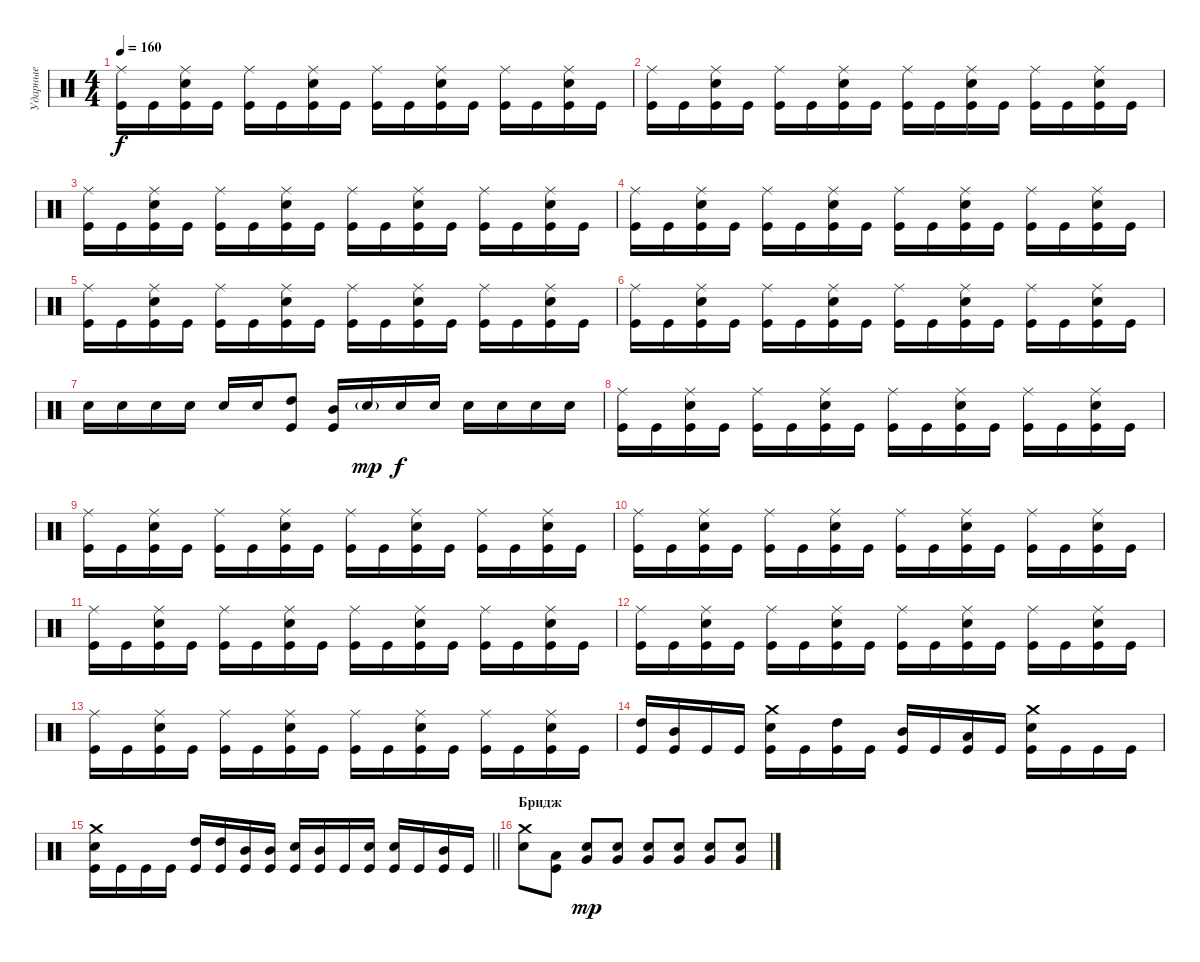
\track ("Ударные" "Ударные") {instrument percussion}
\staff {score}
\articulation defaults
\ts (4 4)
\tempo 160
\clef neutral
\ks c
("Kick (hit)" "Ride (middle)").16{dy f} "Kick (hit)".16 ("Kick (hit)" "Snare (hit) 2" "Ride (middle)").16 "Kick (hit)".16 ("Kick (hit)" "Ride (middle)").16 "Kick (hit)".16 ("Kick (hit)" "Snare (hit) 2" "Ride (middle)").16 "Kick (hit)".16 ("Kick (hit)" "Ride (middle)").16 "Kick (hit)".16 ("Kick (hit)" "Snare (hit) 2" "Ride (middle)").16 "Kick (hit)".16 ("Kick (hit)" "Ride (middle)").16 "Kick (hit)".16 ("Kick (hit)" "Snare (hit) 2" "Ride (middle)").16 "Kick (hit)".16 |
("Kick (hit)" "Ride (middle)").16 "Kick (hit)".16 ("Kick (hit)" "Snare (hit) 2" "Ride (middle)").16 "Kick (hit)".16 ("Kick (hit)" "Ride (middle)").16 "Kick (hit)".16 ("Kick (hit)" "Snare (hit) 2" "Ride (middle)").16 "Kick (hit)".16 ("Kick (hit)" "Ride (middle)").16 "Kick (hit)".16 ("Kick (hit)" "Snare (hit) 2" "Ride (middle)").16 "Kick (hit)".16 ("Kick (hit)" "Ride (middle)").16 "Kick (hit)".16 ("Kick (hit)" "Snare (hit) 2" "Ride (middle)").16 "Kick (hit)".16 |
("Kick (hit)" "Ride (middle)").16 "Kick (hit)".16 ("Kick (hit)" "Snare (hit) 2" "Ride (middle)").16 "Kick (hit)".16 ("Kick (hit)" "Ride (middle)").16 "Kick (hit)".16 ("Kick (hit)" "Snare (hit) 2" "Ride (middle)").16 "Kick (hit)".16 ("Kick (hit)" "Ride (middle)").16 "Kick (hit)".16 ("Kick (hit)" "Snare (hit) 2" "Ride (middle)").16 "Kick (hit)".16 ("Kick (hit)" "Ride (middle)").16 "Kick (hit)".16 ("Kick (hit)" "Snare (hit) 2" "Ride (middle)").16 "Kick (hit)".16 |
("Kick (hit)" "Ride (middle)").16 "Kick (hit)".16 ("Kick (hit)" "Snare (hit) 2" "Ride (middle)").16 "Kick (hit)".16 ("Kick (hit)" "Ride (middle)").16 "Kick (hit)".16 ("Kick (hit)" "Snare (hit) 2" "Ride (middle)").16 "Kick (hit)".16 ("Kick (hit)" "Ride (middle)").16 "Kick (hit)".16 ("Kick (hit)" "Snare (hit) 2" "Ride (middle)").16 "Kick (hit)".16 ("Kick (hit)" "Ride (middle)").16 "Kick (hit)".16 ("Kick (hit)" "Snare (hit) 2" "Ride (middle)").16 "Kick (hit)".16 |
("Kick (hit)" "Ride (middle)").16 "Kick (hit)".16 ("Kick (hit)" "Snare (hit) 2" "Ride (middle)").16 "Kick (hit)".16 ("Kick (hit)" "Ride (middle)").16 "Kick (hit)".16 ("Kick (hit)" "Snare (hit) 2" "Ride (middle)").16 "Kick (hit)".16 ("Kick (hit)" "Ride (middle)").16 "Kick (hit)".16 ("Kick (hit)" "Snare (hit) 2" "Ride (middle)").16 "Kick (hit)".16 ("Kick (hit)" "Ride (middle)").16 "Kick (hit)".16 ("Kick (hit)" "Snare (hit) 2" "Ride (middle)").16 "Kick (hit)".16 |
("Kick (hit)" "Ride (middle)").16 "Kick (hit)".16 ("Kick (hit)" "Snare (hit) 2" "Ride (middle)").16 "Kick (hit)".16 ("Kick (hit)" "Ride (middle)").16 "Kick (hit)".16 ("Kick (hit)" "Snare (hit) 2" "Ride (middle)").16 "Kick (hit)".16 ("Kick (hit)" "Ride (middle)").16 "Kick (hit)".16 ("Kick (hit)" "Snare (hit) 2" "Ride (middle)").16 "Kick (hit)".16 ("Kick (hit)" "Ride (middle)").16 "Kick (hit)".16 ("Kick (hit)" "Snare (hit) 2" "Ride (middle)").16 "Kick (hit)".16 |
"Snare (hit) 2".16 "Snare (hit) 2".16 "Snare (hit) 2".16 "Snare (hit) 2".16 "Snare (hit) 2".16 "Snare (hit) 2".16 ("Kick (hit)" "High Tom (hit)").8 ("Kick (hit)" "Mid Tom (hit)").16 "Snare (hit) 2"{g}.16{dy mp} "Snare (hit) 2".16{dy f} "Snare (hit) 2".16 "Snare (hit) 2".16 "Snare (hit) 2".16 "Snare (hit) 2".16 "Snare (hit) 2".16 |
("Kick (hit)" "Ride (middle)").16 "Kick (hit)".16 ("Kick (hit)" "Snare (hit) 2" "Ride (middle)").16 "Kick (hit)".16 ("Kick (hit)" "Ride (middle)").16 "Kick (hit)".16 ("Kick (hit)" "Snare (hit) 2" "Ride (middle)").16 "Kick (hit)".16 ("Kick (hit)" "Ride (middle)").16 "Kick (hit)".16 ("Kick (hit)" "Snare (hit) 2" "Ride (middle)").16 "Kick (hit)".16 ("Kick (hit)" "Ride (middle)").16 "Kick (hit)".16 ("Kick (hit)" "Snare (hit) 2" "Ride (middle)").16 "Kick (hit)".16 |
("Kick (hit)" "Ride (middle)").16 "Kick (hit)".16 ("Kick (hit)" "Snare (hit) 2" "Ride (middle)").16 "Kick (hit)".16 ("Kick (hit)" "Ride (middle)").16 "Kick (hit)".16 ("Kick (hit)" "Snare (hit) 2" "Ride (middle)").16 "Kick (hit)".16 ("Kick (hit)" "Ride (middle)").16 "Kick (hit)".16 ("Kick (hit)" "Snare (hit) 2" "Ride (middle)").16 "Kick (hit)".16 ("Kick (hit)" "Ride (middle)").16 "Kick (hit)".16 ("Kick (hit)" "Snare (hit) 2" "Ride (middle)").16 "Kick (hit)".16 |
("Kick (hit)" "Ride (middle)").16 "Kick (hit)".16 ("Kick (hit)" "Snare (hit) 2" "Ride (middle)").16 "Kick (hit)".16 ("Kick (hit)" "Ride (middle)").16 "Kick (hit)".16 ("Kick (hit)" "Snare (hit) 2" "Ride (middle)").16 "Kick (hit)".16 ("Kick (hit)" "Ride (middle)").16 "Kick (hit)".16 ("Kick (hit)" "Snare (hit) 2" "Ride (middle)").16 "Kick (hit)".16 ("Kick (hit)" "Ride (middle)").16 "Kick (hit)".16 ("Kick (hit)" "Snare (hit) 2" "Ride (middle)").16 "Kick (hit)".16 |
("Kick (hit)" "Ride (middle)").16 "Kick (hit)".16 ("Kick (hit)" "Snare (hit) 2" "Ride (middle)").16 "Kick (hit)".16 ("Kick (hit)" "Ride (middle)").16 "Kick (hit)".16 ("Kick (hit)" "Snare (hit) 2" "Ride (middle)").16 "Kick (hit)".16 ("Kick (hit)" "Ride (middle)").16 "Kick (hit)".16 ("Kick (hit)" "Snare (hit) 2" "Ride (middle)").16 "Kick (hit)".16 ("Kick (hit)" "Ride (middle)").16 "Kick (hit)".16 ("Kick (hit)" "Snare (hit) 2" "Ride (middle)").16 "Kick (hit)".16 |
("Kick (hit)" "Ride (middle)").16 "Kick (hit)".16 ("Kick (hit)" "Snare (hit) 2" "Ride (middle)").16 "Kick (hit)".16 ("Kick (hit)" "Ride (middle)").16 "Kick (hit)".16 ("Kick (hit)" "Snare (hit) 2" "Ride (middle)").16 "Kick (hit)".16 ("Kick (hit)" "Ride (middle)").16 "Kick (hit)".16 ("Kick (hit)" "Snare (hit) 2" "Ride (middle)").16 "Kick (hit)".16 ("Kick (hit)" "Ride (middle)").16 "Kick (hit)".16 ("Kick (hit)" "Snare (hit) 2" "Ride (middle)").16 "Kick (hit)".16 |
("Kick (hit)" "Ride (middle)").16 "Kick (hit)".16 ("Kick (hit)" "Snare (hit) 2" "Ride (middle)").16 "Kick (hit)".16 ("Kick (hit)" "Ride (middle)").16 "Kick (hit)".16 ("Kick (hit)" "Snare (hit) 2" "Ride (middle)").16 "Kick (hit)".16 ("Kick (hit)" "Ride (middle)").16 "Kick (hit)".16 ("Kick (hit)" "Snare (hit) 2" "Ride (middle)").16 "Kick (hit)".16 ("Kick (hit)" "Ride (middle)").16 "Kick (hit)".16 ("Kick (hit)" "Snare (hit) 2" "Ride (middle)").16 "Kick (hit)".16 |
("Kick (hit)" "High Tom (hit)").16 ("Kick (hit)" "Mid Tom (hit)").16 "Kick (hit)".16 "Kick (hit)".16 ("Kick (hit)" "Snare (hit) 2" "Crash medium (hit)").16 "Kick (hit)".16 ("Kick (hit)" "High Tom (hit)").16 "Kick (hit)".16 ("Kick (hit)" "Mid Tom (hit)").16 "Kick (hit)".16 ("Kick (hit)" "Low Tom (hit)").16 "Kick (hit)".16 ("Kick (hit)" "Snare (hit) 2" "Crash medium (hit)").16 "Kick (hit)".16 "Kick (hit)".16 "Kick (hit)".16 |
\barLineRight lightlight
("Kick (hit)" "Snare (hit) 2" "Crash medium (hit)").16 "Kick (hit)".16 "Kick (hit)".16 "Kick (hit)".16 ("Kick (hit)" "High Tom (hit)").16 ("Kick (hit)" "High Tom (hit)").16 ("Kick (hit)" "Mid Tom (hit)").16 ("Kick (hit)" "Mid Tom (hit)").16 ("Kick (hit)" "Snare (hit) 2").16 ("Kick (hit)" "Mid Tom (hit)").16 "Kick (hit)".16 ("Kick (hit)" "Snare (hit) 2").16 ("Kick (hit)" "Snare (hit) 2").16 "Kick (hit)".16 ("Kick (hit)" "Mid Tom (hit)").16 "Kick (hit)".16 |
\section ("" "Бридж")
("Snare (hit) 2" "Crash medium (hit)").8 ("Kick (hit)" "Low Tom (hit)").8 ("Snare (hit) 2" "Very Low Tom (hit)").8{dy mp} ("Snare (hit) 2" "Very Low Tom (hit)").8 ("Snare (hit) 2" "Very Low Tom (hit)").8 ("Snare (hit) 2" "Very Low Tom (hit)").8 ("Snare (hit) 2" "Very Low Tom (hit)").8 ("Snare (hit) 2" "Very Low Tom (hit)").8
